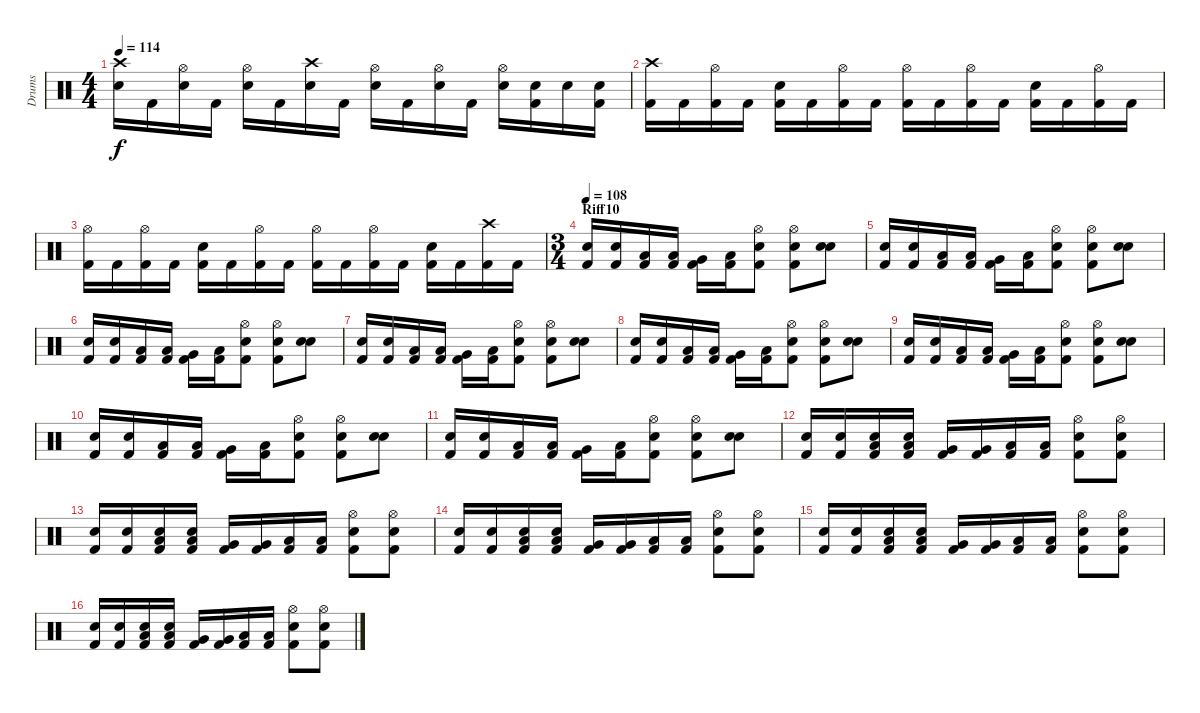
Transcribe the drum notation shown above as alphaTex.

\track ("Drums" "Drums") {instrument percussion}
\staff {score}
\articulation defaults
\ts (4 4)
\tempo 114
\clef neutral
\ks c
("Crash high (hit)" "Snare (hit) 2").16{dy f} "Kick (hit) 2".16 ("Hi-Hat (open)" "Snare (hit) 2").16 "Kick (hit) 2".16 ("Hi-Hat (open)" "Snare (hit) 2").16 "Kick (hit) 2".16 ("Crash high (hit)" "Snare (hit) 2").16 "Kick (hit) 2".16 ("Hi-Hat (open)" "Snare (hit) 2").16 "Kick (hit) 2".16 ("Hi-Hat (open)" "Snare (hit) 2").16 "Kick (hit) 2".16 ("Hi-Hat (open)" "Snare (hit) 2").16 ("Snare (hit) 2" "Kick (hit) 2").16 "Snare (hit) 2".16 ("Snare (hit) 2" "Kick (hit) 2").16 |
("Crash high (hit)" "Kick (hit) 2").16 "Kick (hit) 2".16 ("Hi-Hat (open)" "Kick (hit) 2").16 "Kick (hit) 2".16 ("Snare (hit) 2" "Kick (hit) 2").16 "Kick (hit) 2".16 ("Hi-Hat (open)" "Kick (hit) 2").16 "Kick (hit) 2".16 ("Hi-Hat (open)" "Kick (hit) 2").16 "Kick (hit) 2".16 ("Hi-Hat (open)" "Kick (hit) 2").16 "Kick (hit) 2".16 ("Snare (hit) 2" "Kick (hit) 2").16 "Kick (hit) 2".16 ("Hi-Hat (open)" "Kick (hit) 2").16 "Kick (hit) 2".16 |
("Hi-Hat (open)" "Kick (hit) 2").16 "Kick (hit) 2".16 ("Hi-Hat (open)" "Kick (hit) 2").16 "Kick (hit) 2".16 ("Snare (hit) 2" "Kick (hit) 2").16 "Kick (hit) 2".16 ("Hi-Hat (open)" "Kick (hit) 2").16 "Kick (hit) 2".16 ("Hi-Hat (open)" "Kick (hit) 2").16 "Kick (hit) 2".16 ("Hi-Hat (open)" "Kick (hit) 2").16 "Kick (hit) 2".16 ("Snare (hit) 2" "Kick (hit) 2").16 "Kick (hit) 2".16 ("Crash high (hit)" "Kick (hit) 2").16 "Kick (hit) 2".16 |
\ts (3 4)
\section ("" "Riff10")
\tempo 108
("Snare (hit) 2" "Kick (hit) 2").16 ("Snare (hit) 2" "Kick (hit) 2").16 ("Low Tom (hit)" "Kick (hit) 2").16 ("Low Tom (hit)" "Kick (hit) 2").16 ("Very Low Tom (hit)" "Kick (hit) 2").16 ("Low Floor Tom (hit)" "Kick (hit) 2").16 ("Hi-Hat (open)" "Snare (hit) 2" "Kick (hit) 2").8 ("Hi-Hat (open)" "Snare (hit) 2" "Kick (hit) 2").8 ("Snare (hit) 2" "Snare (hit) 2").8 |
("Snare (hit) 2" "Kick (hit) 2").16 ("Snare (hit) 2" "Kick (hit) 2").16 ("Low Tom (hit)" "Kick (hit) 2").16 ("Low Tom (hit)" "Kick (hit) 2").16 ("Very Low Tom (hit)" "Kick (hit) 2").16 ("Low Floor Tom (hit)" "Kick (hit) 2").16 ("Hi-Hat (open)" "Snare (hit) 2" "Kick (hit) 2").8 ("Hi-Hat (open)" "Snare (hit) 2" "Kick (hit) 2").8 ("Snare (hit) 2" "Snare (hit) 2").8 |
("Snare (hit) 2" "Kick (hit) 2").16 ("Snare (hit) 2" "Kick (hit) 2").16 ("Low Tom (hit)" "Kick (hit) 2").16 ("Low Tom (hit)" "Kick (hit) 2").16 ("Very Low Tom (hit)" "Kick (hit) 2").16 ("Low Floor Tom (hit)" "Kick (hit) 2").16 ("Hi-Hat (open)" "Snare (hit) 2" "Kick (hit) 2").8 ("Hi-Hat (open)" "Snare (hit) 2" "Kick (hit) 2").8 ("Snare (hit) 2" "Snare (hit) 2").8 |
("Snare (hit) 2" "Kick (hit) 2").16 ("Snare (hit) 2" "Kick (hit) 2").16 ("Low Tom (hit)" "Kick (hit) 2").16 ("Low Tom (hit)" "Kick (hit) 2").16 ("Very Low Tom (hit)" "Kick (hit) 2").16 ("Low Floor Tom (hit)" "Kick (hit) 2").16 ("Hi-Hat (open)" "Snare (hit) 2" "Kick (hit) 2").8 ("Hi-Hat (open)" "Snare (hit) 2" "Kick (hit) 2").8 ("Snare (hit) 2" "Snare (hit) 2").8 |
("Snare (hit) 2" "Kick (hit) 2").16 ("Snare (hit) 2" "Kick (hit) 2").16 ("Low Tom (hit)" "Kick (hit) 2").16 ("Low Tom (hit)" "Kick (hit) 2").16 ("Very Low Tom (hit)" "Kick (hit) 2").16 ("Low Floor Tom (hit)" "Kick (hit) 2").16 ("Hi-Hat (open)" "Snare (hit) 2" "Kick (hit) 2").8 ("Hi-Hat (open)" "Snare (hit) 2" "Kick (hit) 2").8 ("Snare (hit) 2" "Snare (hit) 2").8 |
("Snare (hit) 2" "Kick (hit) 2").16 ("Snare (hit) 2" "Kick (hit) 2").16 ("Low Tom (hit)" "Kick (hit) 2").16 ("Low Tom (hit)" "Kick (hit) 2").16 ("Very Low Tom (hit)" "Kick (hit) 2").16 ("Low Floor Tom (hit)" "Kick (hit) 2").16 ("Hi-Hat (open)" "Snare (hit) 2" "Kick (hit) 2").8 ("Hi-Hat (open)" "Snare (hit) 2" "Kick (hit) 2").8 ("Snare (hit) 2" "Snare (hit) 2").8 |
("Snare (hit) 2" "Kick (hit) 2").16 ("Snare (hit) 2" "Kick (hit) 2").16 ("Low Tom (hit)" "Kick (hit) 2").16 ("Low Tom (hit)" "Kick (hit) 2").16 ("Very Low Tom (hit)" "Kick (hit) 2").16 ("Low Floor Tom (hit)" "Kick (hit) 2").16 ("Hi-Hat (open)" "Snare (hit) 2" "Kick (hit) 2").8 ("Hi-Hat (open)" "Snare (hit) 2" "Kick (hit) 2").8 ("Snare (hit) 2" "Snare (hit) 2").8 |
("Snare (hit) 2" "Kick (hit) 2").16 ("Snare (hit) 2" "Kick (hit) 2").16 ("Low Tom (hit)" "Kick (hit) 2").16 ("Low Tom (hit)" "Kick (hit) 2").16 ("Very Low Tom (hit)" "Kick (hit) 2").16 ("Low Floor Tom (hit)" "Kick (hit) 2").16 ("Hi-Hat (open)" "Snare (hit) 2" "Kick (hit) 2").8 ("Hi-Hat (open)" "Snare (hit) 2" "Kick (hit) 2").8 ("Snare (hit) 2" "Snare (hit) 2").8 |
("Snare (hit) 2" "Kick (hit) 2").16 ("Snare (hit) 2" "Kick (hit) 2").16 ("Snare (hit) 2" "Low Tom (hit)" "Kick (hit) 2").16 ("Snare (hit) 2" "Low Tom (hit)" "Kick (hit) 2").16 ("Very Low Tom (hit)" "Kick (hit) 2").16 ("Very Low Tom (hit)" "Kick (hit) 2").16 ("Low Floor Tom (hit)" "Kick (hit) 2").16 ("Low Floor Tom (hit)" "Kick (hit) 2").16 ("Hi-Hat (open)" "Snare (hit) 2" "Kick (hit) 2").8 ("Hi-Hat (open)" "Snare (hit) 2" "Kick (hit) 2").8 |
("Snare (hit) 2" "Kick (hit) 2").16 ("Snare (hit) 2" "Kick (hit) 2").16 ("Snare (hit) 2" "Low Tom (hit)" "Kick (hit) 2").16 ("Snare (hit) 2" "Low Tom (hit)" "Kick (hit) 2").16 ("Very Low Tom (hit)" "Kick (hit) 2").16 ("Very Low Tom (hit)" "Kick (hit) 2").16 ("Low Floor Tom (hit)" "Kick (hit) 2").16 ("Low Floor Tom (hit)" "Kick (hit) 2").16 ("Hi-Hat (open)" "Snare (hit) 2" "Kick (hit) 2").8 ("Hi-Hat (open)" "Snare (hit) 2" "Kick (hit) 2").8 |
("Snare (hit) 2" "Kick (hit) 2").16 ("Snare (hit) 2" "Kick (hit) 2").16 ("Snare (hit) 2" "Low Tom (hit)" "Kick (hit) 2").16 ("Snare (hit) 2" "Low Tom (hit)" "Kick (hit) 2").16 ("Very Low Tom (hit)" "Kick (hit) 2").16 ("Very Low Tom (hit)" "Kick (hit) 2").16 ("Low Floor Tom (hit)" "Kick (hit) 2").16 ("Low Floor Tom (hit)" "Kick (hit) 2").16 ("Hi-Hat (open)" "Snare (hit) 2" "Kick (hit) 2").8 ("Hi-Hat (open)" "Snare (hit) 2" "Kick (hit) 2").8 |
("Snare (hit) 2" "Kick (hit) 2").16 ("Snare (hit) 2" "Kick (hit) 2").16 ("Snare (hit) 2" "Low Tom (hit)" "Kick (hit) 2").16 ("Snare (hit) 2" "Low Tom (hit)" "Kick (hit) 2").16 ("Very Low Tom (hit)" "Kick (hit) 2").16 ("Very Low Tom (hit)" "Kick (hit) 2").16 ("Low Floor Tom (hit)" "Kick (hit) 2").16 ("Low Floor Tom (hit)" "Kick (hit) 2").16 ("Hi-Hat (open)" "Snare (hit) 2" "Kick (hit) 2").8 ("Hi-Hat (open)" "Snare (hit) 2" "Kick (hit) 2").8 |
("Snare (hit) 2" "Kick (hit) 2").16 ("Snare (hit) 2" "Kick (hit) 2").16 ("Snare (hit) 2" "Low Tom (hit)" "Kick (hit) 2").16 ("Snare (hit) 2" "Low Tom (hit)" "Kick (hit) 2").16 ("Very Low Tom (hit)" "Kick (hit) 2").16 ("Very Low Tom (hit)" "Kick (hit) 2").16 ("Low Floor Tom (hit)" "Kick (hit) 2").16 ("Low Floor Tom (hit)" "Kick (hit) 2").16 ("Hi-Hat (open)" "Snare (hit) 2" "Kick (hit) 2").8 ("Hi-Hat (open)" "Snare (hit) 2" "Kick (hit) 2").8
